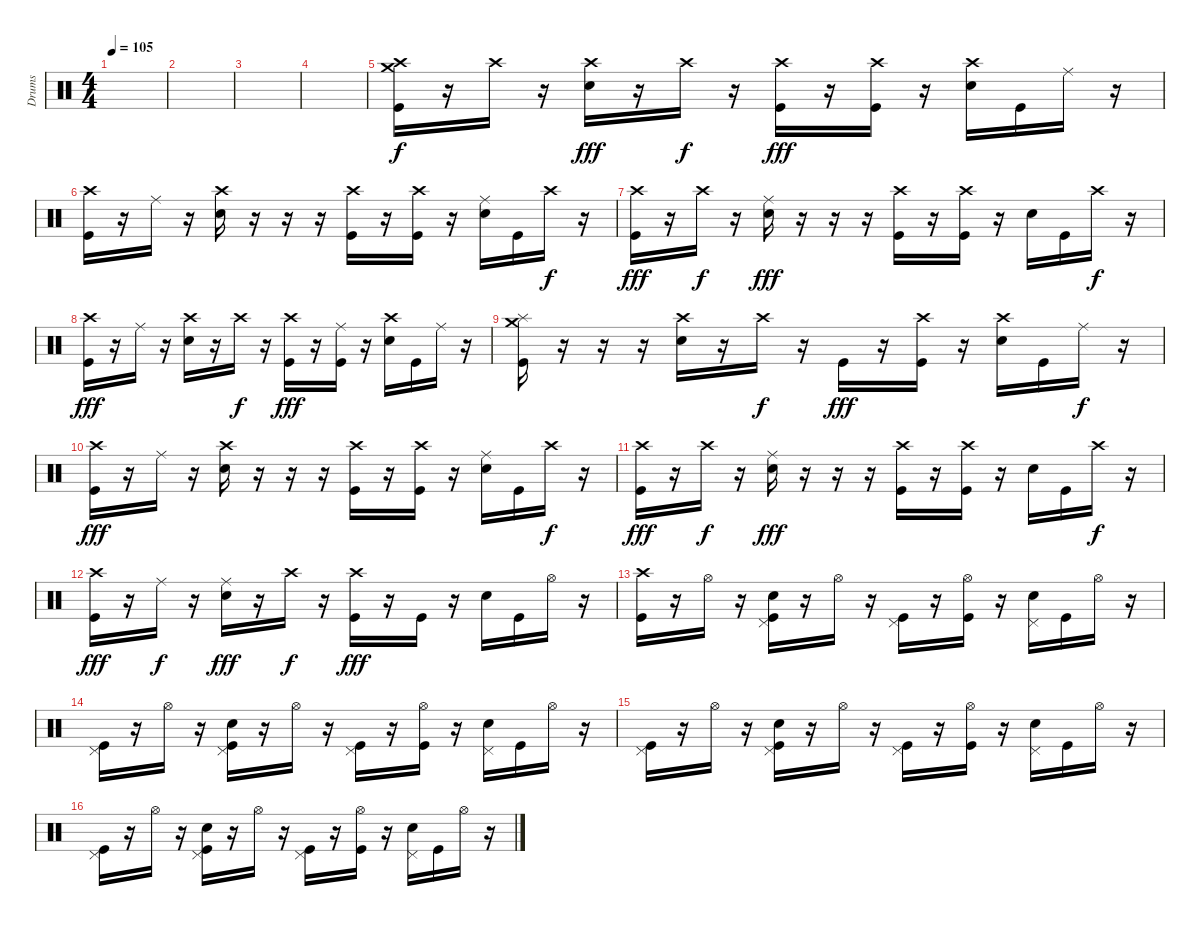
\track ("Drums" "Drums") {instrument percussion}
\staff {score}
\articulation defaults
\ts (4 4)
\tempo 105
\clef neutral
\ks c
|
|
|
|
("Crash medium (hit)" "Crash high (hit)" "Kick (hit)").16 r.16 "Crash high (hit)".16{dy f} r.16 ("Crash high (hit)" "Electric Snare (hit)").16{dy fff} r.16 "Crash high (hit)".16{dy f} r.16 ("Crash high (hit)" "Kick (hit)").16{dy fff} r.16 ("Crash high (hit)" "Kick (hit)").16 r.16 ("Crash high (hit)" "Electric Snare (hit)").16 "Kick (hit)".16 "Ride (middle)".16 r.16 |
("Crash high (hit)" "Kick (hit)").16 r.16 "Ride (middle)".16 r.16 ("Crash high (hit)" "Electric Snare (hit)").16 r.16 r.16 r.16 ("Crash high (hit)" "Kick (hit)").16 r.16 ("Crash high (hit)" "Kick (hit)").16 r.16 ("Ride (middle)" "Electric Snare (hit)").16 "Kick (hit)".16 "Crash high (hit)".16{dy f} r.16 |
("Crash high (hit)" "Kick (hit)").16{dy fff} r.16 "Crash high (hit)".16{dy f} r.16 ("Ride (middle)" "Electric Snare (hit)").16{dy fff} r.16 r.16 r.16 ("Crash high (hit)" "Kick (hit)").16 r.16 ("Crash high (hit)" "Kick (hit)").16 r.16 "Electric Snare (hit)".16 "Kick (hit)".16 "Crash high (hit)".16{dy f} r.16 |
("Crash high (hit)" "Kick (hit)").16{dy fff} r.16 "Ride (middle)".16 r.16 ("Crash high (hit)" "Electric Snare (hit)").16 r.16 "Crash high (hit)".16{dy f} r.16 ("Crash high (hit)" "Kick (hit)").16{dy fff} r.16 ("Ride (middle)" "Kick (hit)").16 r.16 ("Crash high (hit)" "Electric Snare (hit)").16 "Kick (hit)".16 "Ride (middle)".16 r.16 |
("Crash medium (hit)" "Splash (hit)" "Kick (hit)").16 r.16 r.16 r.16 ("Crash high (hit)" "Electric Snare (hit)").16 r.16 "Crash high (hit)".16{dy f} r.16 "Kick (hit)".16{dy fff} r.16 ("Crash high (hit)" "Kick (hit)").16 r.16 ("Crash high (hit)" "Electric Snare (hit)").16 "Kick (hit)".16 "Ride (middle)".16{dy f} r.16 |
("Crash high (hit)" "Kick (hit)").16{dy fff} r.16 "Ride (middle)".16 r.16 ("Crash high (hit)" "Electric Snare (hit)").16 r.16 r.16 r.16 ("Crash high (hit)" "Kick (hit)").16 r.16 ("Crash high (hit)" "Kick (hit)").16 r.16 ("Ride (middle)" "Electric Snare (hit)").16 "Kick (hit)".16 "Crash high (hit)".16{dy f} r.16 |
("Crash high (hit)" "Kick (hit)").16{dy fff} r.16 "Crash high (hit)".16{dy f} r.16 ("Ride (middle)" "Electric Snare (hit)").16{dy fff} r.16 r.16 r.16 ("Crash high (hit)" "Kick (hit)").16 r.16 ("Crash high (hit)" "Kick (hit)").16 r.16 "Electric Snare (hit)".16 "Kick (hit)".16 "Crash high (hit)".16{dy f} r.16 |
("Crash high (hit)" "Kick (hit)").16{dy fff} r.16 "Ride (middle)".16{dy f} r.16 ("Ride (middle)" "Electric Snare (hit)").16{dy fff} r.16 "Crash high (hit)".16{dy f} r.16 ("Crash high (hit)" "Kick (hit)").16{dy fff} r.16 "Kick (hit)".16 r.16 "Electric Snare (hit)".16 "Kick (hit)".16 "Hi-Hat (open)".16 r.16 |
("Crash high (hit)" "Kick (hit)").16 r.16 "Hi-Hat (open)".16 r.16 ("Pedal Hi-Hat (hit)" "Electric Snare (hit)" "Kick (hit)").16 r.16 "Hi-Hat (open)".16 r.16 ("Pedal Hi-Hat (hit)" "Kick (hit)").16 r.16 ("Hi-Hat (open)" "Kick (hit)").16 r.16 ("Pedal Hi-Hat (hit)" "Electric Snare (hit)").16 "Kick (hit)".16 "Hi-Hat (open)".16 r.16 |
("Pedal Hi-Hat (hit)" "Kick (hit)").16 r.16 "Hi-Hat (open)".16 r.16 ("Pedal Hi-Hat (hit)" "Electric Snare (hit)" "Kick (hit)").16 r.16 "Hi-Hat (open)".16 r.16 ("Pedal Hi-Hat (hit)" "Kick (hit)").16 r.16 ("Hi-Hat (open)" "Kick (hit)").16 r.16 ("Pedal Hi-Hat (hit)" "Electric Snare (hit)").16 "Kick (hit)".16 "Hi-Hat (open)".16 r.16 |
("Pedal Hi-Hat (hit)" "Kick (hit)").16 r.16 "Hi-Hat (open)".16 r.16 ("Pedal Hi-Hat (hit)" "Electric Snare (hit)" "Kick (hit)").16 r.16 "Hi-Hat (open)".16 r.16 ("Pedal Hi-Hat (hit)" "Kick (hit)").16 r.16 ("Hi-Hat (open)" "Kick (hit)").16 r.16 ("Pedal Hi-Hat (hit)" "Electric Snare (hit)").16 "Kick (hit)".16 "Hi-Hat (open)".16 r.16 |
("Pedal Hi-Hat (hit)" "Kick (hit)").16 r.16 "Hi-Hat (open)".16 r.16 ("Pedal Hi-Hat (hit)" "Electric Snare (hit)" "Kick (hit)").16 r.16 "Hi-Hat (open)".16 r.16 ("Pedal Hi-Hat (hit)" "Kick (hit)").16 r.16 ("Hi-Hat (open)" "Kick (hit)").16 r.16 ("Pedal Hi-Hat (hit)" "Electric Snare (hit)").16 "Kick (hit)".16 "Hi-Hat (open)".16 r.16
